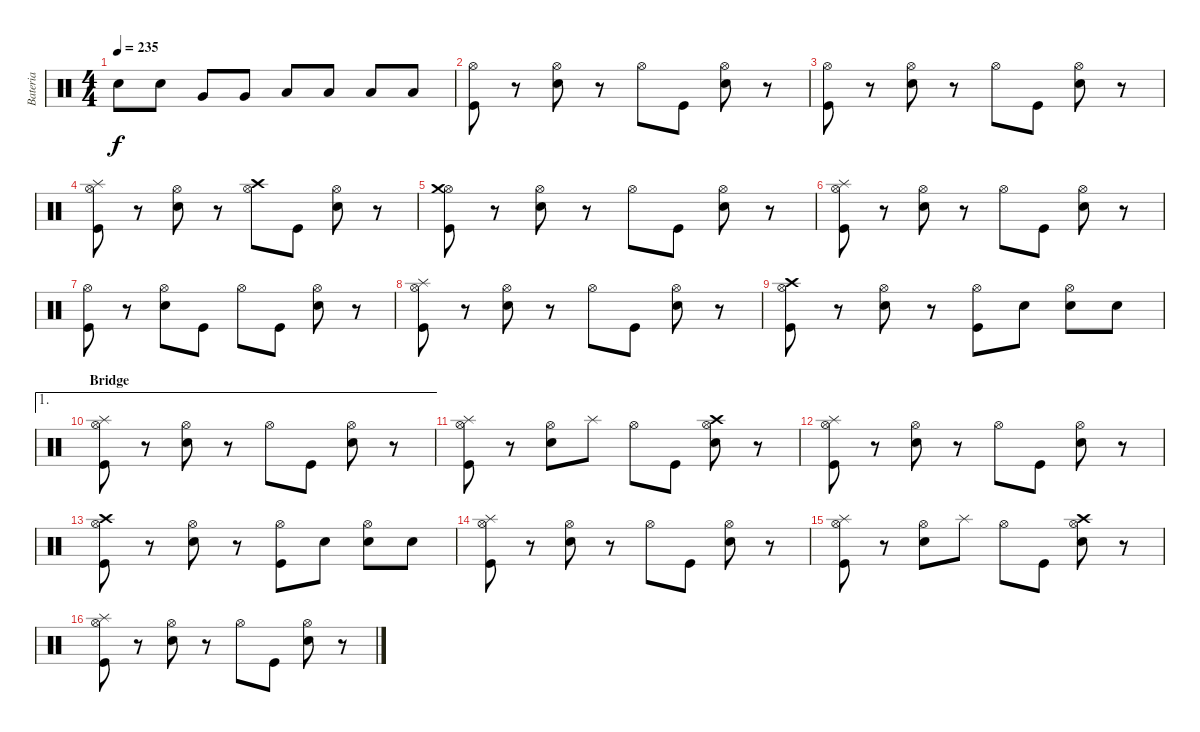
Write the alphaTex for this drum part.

\track ("Bateria" "Bateria") {instrument percussion}
\staff {score}
\articulation defaults
\ts (4 4)
\tempo 235
\clef neutral
\ks c "Electric Snare (hit)".8{dy f} "Electric Snare (hit)".8 "Very Low Tom (hit)".8 "Very Low Tom (hit)".8 "Low Floor Tom (hit)".8 "Low Floor Tom (hit)".8 "Low Tom (hit)".8 "Low Tom (hit)".8
|
("Kick (hit)" "Hi-Hat (open)").8 r.8 ("Electric Snare (hit)" "Hi-Hat (open)").8 r.8 "Hi-Hat (open)".8 "Kick (hit)".8 ("Electric Snare (hit)" "Hi-Hat (open)").8 r.8 |
("Kick (hit)" "Hi-Hat (open)").8 r.8 ("Electric Snare (hit)" "Hi-Hat (open)").8 r.8 "Hi-Hat (open)".8 "Kick (hit)".8 ("Electric Snare (hit)" "Hi-Hat (open)").8 r.8 |
("Kick (hit)" "Hi-Hat (open)" "Splash (hit)").8 r.8 ("Electric Snare (hit)" "Hi-Hat (open)").8 r.8 ("Hi-Hat (open)" "Crash high (hit)").8 "Kick (hit)".8 ("Electric Snare (hit)" "Hi-Hat (open)").8 r.8 |
("Kick (hit)" "Hi-Hat (open)" "Crash medium (hit)").8 r.8 ("Electric Snare (hit)" "Hi-Hat (open)").8 r.8 "Hi-Hat (open)".8 "Kick (hit)".8 ("Electric Snare (hit)" "Hi-Hat (open)").8 r.8 |
("Kick (hit)" "Hi-Hat (open)" "Splash (hit)").8 r.8 ("Electric Snare (hit)" "Hi-Hat (open)").8 r.8 "Hi-Hat (open)".8 "Kick (hit)".8 ("Electric Snare (hit)" "Hi-Hat (open)").8 r.8 |
("Kick (hit)" "Hi-Hat (open)").8 r.8 ("Electric Snare (hit)" "Hi-Hat (open)").8 "Kick (hit)".8 "Hi-Hat (open)".8 "Kick (hit)".8 ("Electric Snare (hit)" "Hi-Hat (open)").8 r.8 |
("Kick (hit)" "Hi-Hat (open)" "Splash (hit)").8 r.8 ("Electric Snare (hit)" "Hi-Hat (open)").8 r.8 "Hi-Hat (open)".8 "Kick (hit)".8 ("Electric Snare (hit)" "Hi-Hat (open)").8 r.8 |
("Kick (hit)" "Hi-Hat (open)" "Crash high (hit)").8 r.8 ("Electric Snare (hit)" "Hi-Hat (open)").8 r.8 ("Kick (hit)" "Hi-Hat (open)").8 "Electric Snare (hit)".8 ("Electric Snare (hit)" "Hi-Hat (open)").8 "Electric Snare (hit)".8 |
\ae 1
\section ("" "Bridge")
("Kick (hit)" "Hi-Hat (open)" "Splash (hit)").8 r.8 ("Electric Snare (hit)" "Hi-Hat (open)").8 r.8 "Hi-Hat (open)".8 "Kick (hit)".8 ("Electric Snare (hit)" "Hi-Hat (open)").8 r.8 |
("Kick (hit)" "Hi-Hat (open)" "Splash (hit)").8 r.8 ("Electric Snare (hit)" "Hi-Hat (open)").8 "Splash (hit)".8 "Hi-Hat (open)".8 "Kick (hit)".8 ("Electric Snare (hit)" "Hi-Hat (open)" "Crash high (hit)").8 r.8 |
("Kick (hit)" "Hi-Hat (open)" "Splash (hit)").8 r.8 ("Electric Snare (hit)" "Hi-Hat (open)").8 r.8 "Hi-Hat (open)".8 "Kick (hit)".8 ("Electric Snare (hit)" "Hi-Hat (open)").8 r.8 |
("Kick (hit)" "Hi-Hat (open)" "Crash high (hit)").8 r.8 ("Electric Snare (hit)" "Hi-Hat (open)").8 r.8 ("Kick (hit)" "Hi-Hat (open)").8 "Electric Snare (hit)".8 ("Electric Snare (hit)" "Hi-Hat (open)").8 "Electric Snare (hit)".8 |
("Kick (hit)" "Hi-Hat (open)" "Splash (hit)").8 r.8 ("Electric Snare (hit)" "Hi-Hat (open)").8 r.8 "Hi-Hat (open)".8 "Kick (hit)".8 ("Electric Snare (hit)" "Hi-Hat (open)").8 r.8 |
("Kick (hit)" "Hi-Hat (open)" "Splash (hit)").8 r.8 ("Electric Snare (hit)" "Hi-Hat (open)").8 "Splash (hit)".8 "Hi-Hat (open)".8 "Kick (hit)".8 ("Electric Snare (hit)" "Hi-Hat (open)" "Crash high (hit)").8 r.8 |
("Kick (hit)" "Hi-Hat (open)" "Splash (hit)").8 r.8 ("Electric Snare (hit)" "Hi-Hat (open)").8 r.8 "Hi-Hat (open)".8 "Kick (hit)".8 ("Electric Snare (hit)" "Hi-Hat (open)").8 r.8
